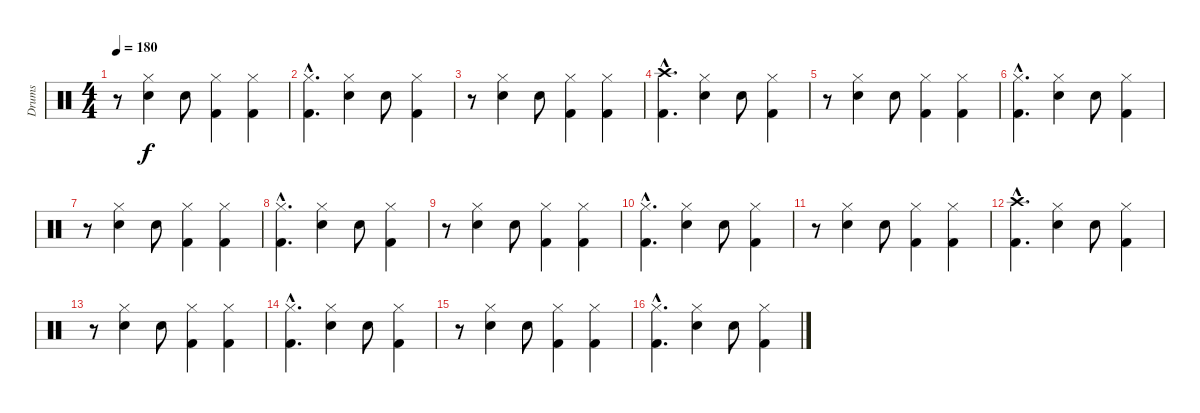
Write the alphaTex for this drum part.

\track ("Drums" "Drums") {instrument percussion}
\staff {score}
\articulation defaults
\ts (4 4)
\tempo 180
\clef neutral
\ks c
r.8{dy f} ("Hi-Hat (closed)" "Snare (hit) 2").4 "Snare (hit) 2".8 ("Hi-Hat (closed)" "Kick (hit) 2").4 ("Hi-Hat (closed)" "Kick (hit) 2").4 |
("Hi-Hat (closed)"{hac} "Kick (hit) 2"{hac}).4{d} ("Hi-Hat (closed)" "Snare (hit) 2").4 "Snare (hit) 2".8 ("Hi-Hat (closed)" "Kick (hit) 2").4 |
r.8 ("Hi-Hat (closed)" "Snare (hit) 2").4 "Snare (hit) 2".8 ("Hi-Hat (closed)" "Kick (hit) 2").4 ("Hi-Hat (closed)" "Kick (hit) 2").4 |
("Crash high (hit)"{hac} "Kick (hit) 2"{hac}).4{d} ("Hi-Hat (closed)" "Snare (hit) 2").4 "Snare (hit) 2".8 ("Hi-Hat (closed)" "Kick (hit) 2").4 |
r.8 ("Hi-Hat (closed)" "Snare (hit) 2").4 "Snare (hit) 2".8 ("Hi-Hat (closed)" "Kick (hit) 2").4 ("Hi-Hat (closed)" "Kick (hit) 2").4 |
("Hi-Hat (closed)"{hac} "Kick (hit) 2"{hac}).4{d} ("Hi-Hat (closed)" "Snare (hit) 2").4 "Snare (hit) 2".8 ("Hi-Hat (closed)" "Kick (hit) 2").4 |
r.8 ("Hi-Hat (closed)" "Snare (hit) 2").4 "Snare (hit) 2".8 ("Hi-Hat (closed)" "Kick (hit) 2").4 ("Hi-Hat (closed)" "Kick (hit) 2").4 |
("Hi-Hat (closed)"{hac} "Kick (hit) 2"{hac}).4{d} ("Hi-Hat (closed)" "Snare (hit) 2").4 "Snare (hit) 2".8 ("Hi-Hat (closed)" "Kick (hit) 2").4 |
r.8 ("Hi-Hat (closed)" "Snare (hit) 2").4 "Snare (hit) 2".8 ("Hi-Hat (closed)" "Kick (hit) 2").4 ("Hi-Hat (closed)" "Kick (hit) 2").4 |
("Hi-Hat (closed)"{hac} "Kick (hit) 2"{hac}).4{d} ("Hi-Hat (closed)" "Snare (hit) 2").4 "Snare (hit) 2".8 ("Hi-Hat (closed)" "Kick (hit) 2").4 |
r.8 ("Hi-Hat (closed)" "Snare (hit) 2").4 "Snare (hit) 2".8 ("Hi-Hat (closed)" "Kick (hit) 2").4 ("Hi-Hat (closed)" "Kick (hit) 2").4 |
("Crash high (hit)"{hac} "Kick (hit) 2"{hac}).4{d} ("Hi-Hat (closed)" "Snare (hit) 2").4 "Snare (hit) 2".8 ("Hi-Hat (closed)" "Kick (hit) 2").4 |
r.8 ("Hi-Hat (closed)" "Snare (hit) 2").4 "Snare (hit) 2".8 ("Hi-Hat (closed)" "Kick (hit) 2").4 ("Hi-Hat (closed)" "Kick (hit) 2").4 |
("Hi-Hat (closed)"{hac} "Kick (hit) 2"{hac}).4{d} ("Hi-Hat (closed)" "Snare (hit) 2").4 "Snare (hit) 2".8 ("Hi-Hat (closed)" "Kick (hit) 2").4 |
r.8 ("Hi-Hat (closed)" "Snare (hit) 2").4 "Snare (hit) 2".8 ("Hi-Hat (closed)" "Kick (hit) 2").4 ("Hi-Hat (closed)" "Kick (hit) 2").4 |
("Hi-Hat (closed)"{hac} "Kick (hit) 2"{hac}).4{d} ("Hi-Hat (closed)" "Snare (hit) 2").4 "Snare (hit) 2".8 ("Hi-Hat (closed)" "Kick (hit) 2").4
